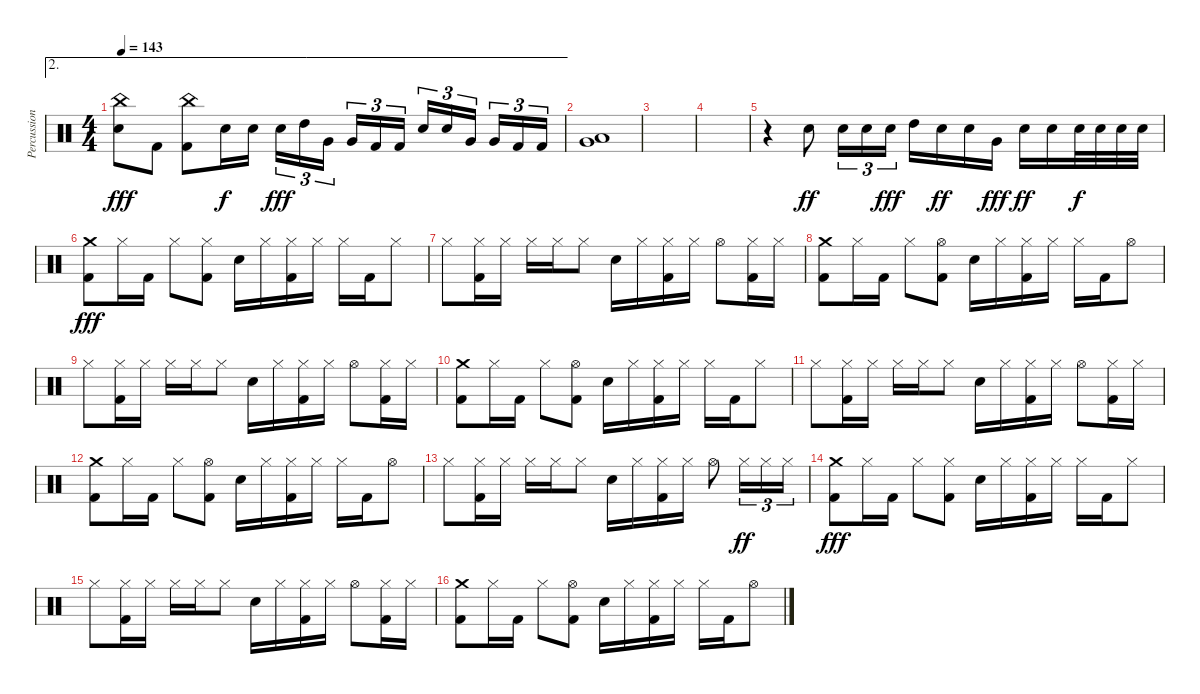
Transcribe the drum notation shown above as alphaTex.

\track ("Percussion" "Percussion") {instrument percussion}
\staff {score}
\articulation defaults
\ae 2
\ts (4 4)
\tempo 143
\clef neutral
\ks c
("Electric Snare (hit)" "China (hit)").8{dy fff} "Kick (hit) 2".8 ("China (hit)" "Kick (hit) 2").8 "Electric Snare (hit)".16{dy f} "Electric Snare (hit)".16 "Electric Snare (hit)".16{tu (3 2) dy fff} "High Tom (hit)".16{tu (3 2)} "Very Low Tom (hit)".16{tu (3 2) beam splitsecondary} "Very Low Tom (hit)".16{tu (3 2)} "Kick (hit) 2".16{tu (3 2)} "Kick (hit) 2".16{tu (3 2)} "Electric Snare (hit)".16{tu (3 2)} "Electric Snare (hit)".16{tu (3 2)} "Very Low Tom (hit)".16{tu (3 2) beam splitsecondary} "Very Low Tom (hit)".16{tu (3 2)} "Kick (hit) 2".16{tu (3 2)} "Kick (hit) 2".16{tu (3 2)} |
("Very Low Tom (hit)" "Low Floor Tom (hit)").1 |
|
|
r.4 "Electric Snare (hit)".8{dy ff} "Electric Snare (hit)".16{tu (3 2)} "Electric Snare (hit)".16{tu (3 2)} "Electric Snare (hit)".16{tu (3 2) dy fff} "High Tom (hit)".16 "Electric Snare (hit)".16{dy ff} "Electric Snare (hit)".16 "Very Low Tom (hit)".16{dy fff} "Electric Snare (hit)".16{dy ff} "Electric Snare (hit)".16 "Electric Snare (hit)".32{dy f} "Electric Snare (hit)".32 "Electric Snare (hit)".32 "Electric Snare (hit)".32 |
("Kick (hit) 2" "Crash medium (hit)").8{dy fff} "Hi-Hat (closed)".16 "Kick (hit) 2".16 "Hi-Hat (closed)".8 ("Hi-Hat (closed)" "Kick (hit) 2").8 "Electric Snare (hit)".16 "Hi-Hat (closed)".16 ("Hi-Hat (closed)" "Kick (hit) 2").16 "Hi-Hat (closed)".16 "Hi-Hat (closed)".16 "Kick (hit) 2".16 "Hi-Hat (closed)".8 |
"Hi-Hat (closed)".8 ("Hi-Hat (closed)" "Kick (hit) 2").16 "Hi-Hat (closed)".16 "Hi-Hat (closed)".16 "Hi-Hat (closed)".16 "Hi-Hat (closed)".8 "Electric Snare (hit)".16 "Hi-Hat (closed)".16 ("Hi-Hat (closed)" "Kick (hit) 2").16 "Hi-Hat (closed)".16 "Hi-Hat (open)".8 ("Hi-Hat (closed)" "Kick (hit) 2").16 "Hi-Hat (closed)".16 |
("Kick (hit) 2" "Crash medium (hit)").8 "Hi-Hat (closed)".16 "Kick (hit) 2".16 "Hi-Hat (closed)".8 ("Hi-Hat (open)" "Kick (hit) 2").8 "Electric Snare (hit)".16 "Hi-Hat (closed)".16 ("Hi-Hat (closed)" "Kick (hit) 2").16 "Hi-Hat (closed)".16 "Hi-Hat (closed)".16 "Kick (hit) 2".16 "Hi-Hat (open)".8 |
"Hi-Hat (closed)".8 ("Hi-Hat (closed)" "Kick (hit) 2").16 "Hi-Hat (closed)".16 "Hi-Hat (closed)".16 "Hi-Hat (closed)".16 "Hi-Hat (closed)".8 "Electric Snare (hit)".16 "Hi-Hat (closed)".16 ("Hi-Hat (closed)" "Kick (hit) 2").16 "Hi-Hat (closed)".16 "Hi-Hat (open)".8 ("Hi-Hat (closed)" "Kick (hit) 2").16 "Hi-Hat (closed)".16 |
("Kick (hit) 2" "Crash medium (hit)").8 "Hi-Hat (closed)".16 "Kick (hit) 2".16 "Hi-Hat (closed)".8 ("Hi-Hat (open)" "Kick (hit) 2").8 "Electric Snare (hit)".16 "Hi-Hat (closed)".16 ("Hi-Hat (closed)" "Kick (hit) 2").16 "Hi-Hat (closed)".16 "Hi-Hat (closed)".16 "Kick (hit) 2".16 "Hi-Hat (closed)".8 |
"Hi-Hat (closed)".8 ("Hi-Hat (closed)" "Kick (hit) 2").16 "Hi-Hat (closed)".16 "Hi-Hat (closed)".16 "Hi-Hat (closed)".16 "Hi-Hat (closed)".8 "Electric Snare (hit)".16 "Hi-Hat (closed)".16 ("Hi-Hat (closed)" "Kick (hit) 2").16 "Hi-Hat (closed)".16 "Hi-Hat (open)".8 ("Hi-Hat (closed)" "Kick (hit) 2").16 "Hi-Hat (closed)".16 |
("Kick (hit) 2" "Crash medium (hit)").8 "Hi-Hat (closed)".16 "Kick (hit) 2".16 "Hi-Hat (closed)".8 ("Hi-Hat (open)" "Kick (hit) 2").8 "Electric Snare (hit)".16 "Hi-Hat (closed)".16 ("Hi-Hat (closed)" "Kick (hit) 2").16 "Hi-Hat (closed)".16 "Hi-Hat (closed)".16 "Kick (hit) 2".16 "Hi-Hat (open)".8 |
"Hi-Hat (closed)".8 ("Hi-Hat (closed)" "Kick (hit) 2").16 "Hi-Hat (closed)".16 "Hi-Hat (closed)".16 "Hi-Hat (closed)".16 "Hi-Hat (closed)".8 "Electric Snare (hit)".16 "Hi-Hat (closed)".16 ("Hi-Hat (closed)" "Kick (hit) 2").16 "Hi-Hat (closed)".16 "Hi-Hat (open)".8 "Hi-Hat (closed)".16{tu (3 2) dy ff} "Hi-Hat (closed)".16{tu (3 2)} "Hi-Hat (closed)".16{tu (3 2)} |
("Kick (hit) 2" "Crash medium (hit)").8{dy fff} "Hi-Hat (closed)".16 "Kick (hit) 2".16 "Hi-Hat (closed)".8 ("Hi-Hat (closed)" "Kick (hit) 2").8 "Electric Snare (hit)".16 "Hi-Hat (closed)".16 ("Hi-Hat (closed)" "Kick (hit) 2").16 "Hi-Hat (closed)".16 "Hi-Hat (closed)".16 "Kick (hit) 2".16 "Hi-Hat (closed)".8 |
"Hi-Hat (closed)".8 ("Hi-Hat (closed)" "Kick (hit) 2").16 "Hi-Hat (closed)".16 "Hi-Hat (closed)".16 "Hi-Hat (closed)".16 "Hi-Hat (closed)".8 "Electric Snare (hit)".16 "Hi-Hat (closed)".16 ("Hi-Hat (closed)" "Kick (hit) 2").16 "Hi-Hat (closed)".16 "Hi-Hat (open)".8 ("Hi-Hat (closed)" "Kick (hit) 2").16 "Hi-Hat (closed)".16 |
("Kick (hit) 2" "Crash medium (hit)").8 "Hi-Hat (closed)".16 "Kick (hit) 2".16 "Hi-Hat (closed)".8 ("Hi-Hat (open)" "Kick (hit) 2").8 "Electric Snare (hit)".16 "Hi-Hat (closed)".16 ("Hi-Hat (closed)" "Kick (hit) 2").16 "Hi-Hat (closed)".16 "Hi-Hat (closed)".16 "Kick (hit) 2".16 "Hi-Hat (open)".8
